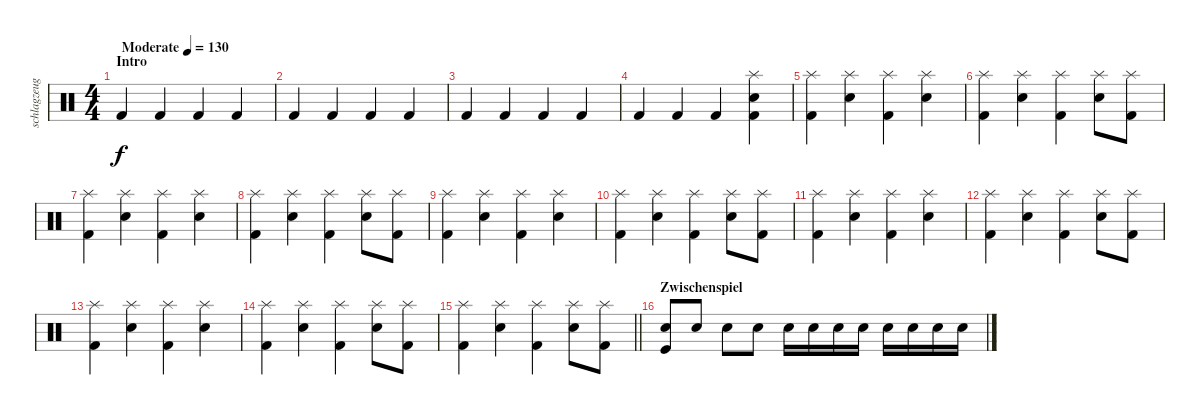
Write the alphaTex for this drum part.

\track ("schlagzeug" "schlagzeug") {instrument percussion}
\staff {score}
\articulation defaults
\ts (4 4)
\section ("" "Intro")
\tempo (130 "Moderate")
\clef neutral
\ks c "Kick (hit) 2".4{dy f} "Kick (hit) 2".4 "Kick (hit) 2".4 "Kick (hit) 2".4
|
"Kick (hit) 2".4 "Kick (hit) 2".4 "Kick (hit) 2".4 "Kick (hit) 2".4 |
"Kick (hit) 2".4 "Kick (hit) 2".4 "Kick (hit) 2".4 "Kick (hit) 2".4 |
"Kick (hit) 2".4 "Kick (hit) 2".4 "Kick (hit) 2".4 ("Kick (hit) 2" "Snare (hit) 2" "Splash (hit)").4 |
("Kick (hit) 2" "Splash (hit)").4 ("Snare (hit) 2" "Splash (hit)").4 ("Kick (hit) 2" "Splash (hit)").4 ("Snare (hit) 2" "Splash (hit)").4 |
("Kick (hit) 2" "Splash (hit)").4 ("Snare (hit) 2" "Splash (hit)").4 ("Kick (hit) 2" "Splash (hit)").4 ("Snare (hit) 2" "Splash (hit)").8 ("Kick (hit) 2" "Splash (hit)").8 |
("Kick (hit) 2" "Splash (hit)").4 ("Snare (hit) 2" "Splash (hit)").4 ("Kick (hit) 2" "Splash (hit)").4 ("Snare (hit) 2" "Splash (hit)").4 |
("Kick (hit) 2" "Splash (hit)").4 ("Snare (hit) 2" "Splash (hit)").4 ("Kick (hit) 2" "Splash (hit)").4 ("Snare (hit) 2" "Splash (hit)").8 ("Kick (hit) 2" "Splash (hit)").8 |
("Kick (hit) 2" "Splash (hit)").4 ("Snare (hit) 2" "Splash (hit)").4 ("Kick (hit) 2" "Splash (hit)").4 ("Snare (hit) 2" "Splash (hit)").4 |
("Kick (hit) 2" "Splash (hit)").4 ("Snare (hit) 2" "Splash (hit)").4 ("Kick (hit) 2" "Splash (hit)").4 ("Snare (hit) 2" "Splash (hit)").8 ("Kick (hit) 2" "Splash (hit)").8 |
("Kick (hit) 2" "Splash (hit)").4 ("Snare (hit) 2" "Splash (hit)").4 ("Kick (hit) 2" "Splash (hit)").4 ("Snare (hit) 2" "Splash (hit)").4 |
("Kick (hit) 2" "Splash (hit)").4 ("Snare (hit) 2" "Splash (hit)").4 ("Kick (hit) 2" "Splash (hit)").4 ("Snare (hit) 2" "Splash (hit)").8 ("Kick (hit) 2" "Splash (hit)").8 |
("Kick (hit) 2" "Splash (hit)").4 ("Snare (hit) 2" "Splash (hit)").4 ("Kick (hit) 2" "Splash (hit)").4 ("Snare (hit) 2" "Splash (hit)").4 |
("Kick (hit) 2" "Splash (hit)").4 ("Snare (hit) 2" "Splash (hit)").4 ("Kick (hit) 2" "Splash (hit)").4 ("Snare (hit) 2" "Splash (hit)").8 ("Kick (hit) 2" "Splash (hit)").8 |
\barLineRight lightlight
("Kick (hit) 2" "Splash (hit)").4 ("Snare (hit) 2" "Splash (hit)").4 ("Kick (hit) 2" "Splash (hit)").4 ("Snare (hit) 2" "Splash (hit)").8 ("Kick (hit) 2" "Splash (hit)").8 |
\section ("" "Zwischenspiel")
("Snare (hit) 2" "Kick (hit)").8 "Snare (hit) 2".8 "Snare (hit) 2".8 "Snare (hit) 2".8 "Snare (hit) 2".16 "Snare (hit) 2".16 "Snare (hit) 2".16 "Snare (hit) 2".16 "Snare (hit) 2".16 "Snare (hit) 2".16 "Snare (hit) 2".16 "Snare (hit) 2".16
